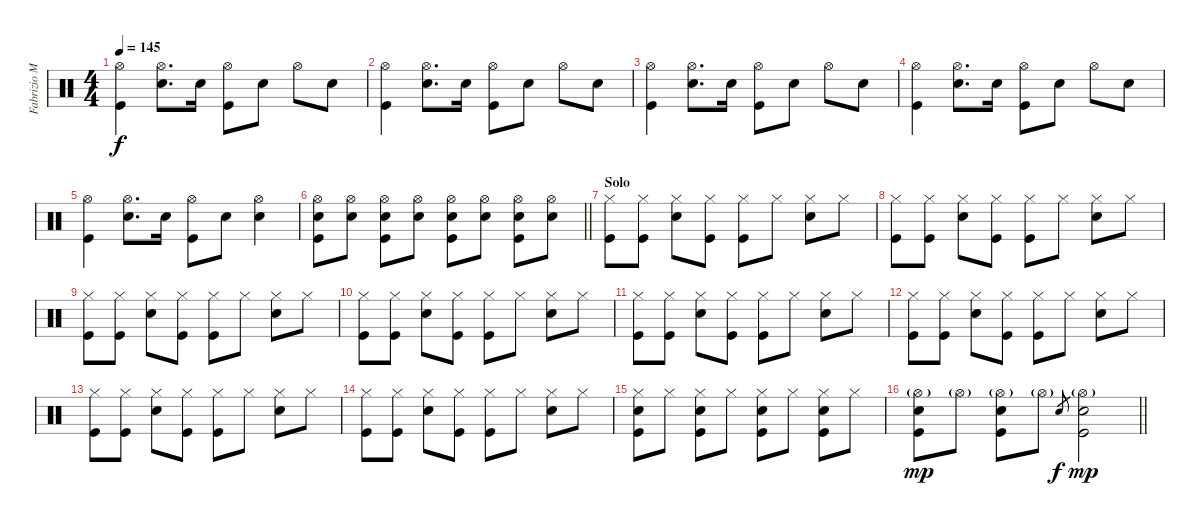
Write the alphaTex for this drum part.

\track ("Fabrizio Moretti" "Fabrizio M") {instrument percussion}
\staff {score}
\articulation defaults
\ts (4 4)
\tempo 145
\clef neutral
\ks c
("Hi-Hat (open)" "Kick (hit)").4{dy f} ("Hi-Hat (open)" "Snare (hit) 2").8{d} "Snare (hit) 2".16 ("Hi-Hat (open)" "Kick (hit)").8 "Snare (hit) 2".8 "Hi-Hat (open)".8 "Snare (hit) 2".8 |
("Hi-Hat (open)" "Kick (hit)").4 ("Hi-Hat (open)" "Snare (hit) 2").8{d} "Snare (hit) 2".16 ("Hi-Hat (open)" "Kick (hit)").8 "Snare (hit) 2".8 "Hi-Hat (open)".8 "Snare (hit) 2".8 |
("Hi-Hat (open)" "Kick (hit)").4 ("Hi-Hat (open)" "Snare (hit) 2").8{d} "Snare (hit) 2".16 ("Hi-Hat (open)" "Kick (hit)").8 "Snare (hit) 2".8 "Hi-Hat (open)".8 "Snare (hit) 2".8 |
("Hi-Hat (open)" "Kick (hit)").4 ("Hi-Hat (open)" "Snare (hit) 2").8{d} "Snare (hit) 2".16 ("Hi-Hat (open)" "Kick (hit)").8 "Snare (hit) 2".8 "Hi-Hat (open)".8 "Snare (hit) 2".8 |
("Hi-Hat (open)" "Kick (hit)").4 ("Hi-Hat (open)" "Snare (hit) 2").8{d} "Snare (hit) 2".16 ("Hi-Hat (open)" "Kick (hit)").8 "Snare (hit) 2".8 ("Hi-Hat (open)" "Snare (hit) 2").4 |
\barLineRight lightlight
("Hi-Hat (open)" "Snare (hit) 2" "Kick (hit)").8 ("Hi-Hat (open)" "Snare (hit) 2").8 ("Hi-Hat (open)" "Snare (hit) 2" "Kick (hit)").8 ("Hi-Hat (open)" "Snare (hit) 2").8 ("Hi-Hat (open)" "Snare (hit) 2" "Kick (hit)").8 ("Hi-Hat (open)" "Snare (hit) 2").8 ("Hi-Hat (open)" "Snare (hit) 2" "Kick (hit)").8 ("Hi-Hat (open)" "Snare (hit) 2").8 |
\section ("" "Solo")
("Hi-Hat (closed)" "Kick (hit)").8 ("Hi-Hat (closed)" "Kick (hit)").8 ("Hi-Hat (closed)" "Snare (hit) 2").8 ("Hi-Hat (closed)" "Kick (hit)").8 ("Hi-Hat (closed)" "Kick (hit)").8 "Hi-Hat (closed)".8 ("Hi-Hat (closed)" "Snare (hit) 2").8 "Hi-Hat (closed)".8 |
("Hi-Hat (closed)" "Kick (hit)").8 ("Hi-Hat (closed)" "Kick (hit)").8 ("Hi-Hat (closed)" "Snare (hit) 2").8 ("Hi-Hat (closed)" "Kick (hit)").8 ("Hi-Hat (closed)" "Kick (hit)").8 "Hi-Hat (closed)".8 ("Hi-Hat (closed)" "Snare (hit) 2").8 "Hi-Hat (closed)".8 |
("Hi-Hat (closed)" "Kick (hit)").8 ("Hi-Hat (closed)" "Kick (hit)").8 ("Hi-Hat (closed)" "Snare (hit) 2").8 ("Hi-Hat (closed)" "Kick (hit)").8 ("Hi-Hat (closed)" "Kick (hit)").8 "Hi-Hat (closed)".8 ("Hi-Hat (closed)" "Snare (hit) 2").8 "Hi-Hat (closed)".8 |
("Hi-Hat (closed)" "Kick (hit)").8 ("Hi-Hat (closed)" "Kick (hit)").8 ("Hi-Hat (closed)" "Snare (hit) 2").8 ("Hi-Hat (closed)" "Kick (hit)").8 ("Hi-Hat (closed)" "Kick (hit)").8 "Hi-Hat (closed)".8 ("Hi-Hat (closed)" "Snare (hit) 2").8 "Hi-Hat (closed)".8 |
("Hi-Hat (closed)" "Kick (hit)").8 ("Hi-Hat (closed)" "Kick (hit)").8 ("Hi-Hat (closed)" "Snare (hit) 2").8 ("Hi-Hat (closed)" "Kick (hit)").8 ("Hi-Hat (closed)" "Kick (hit)").8 "Hi-Hat (closed)".8 ("Hi-Hat (closed)" "Snare (hit) 2").8 "Hi-Hat (closed)".8 |
("Hi-Hat (closed)" "Kick (hit)").8 ("Hi-Hat (closed)" "Kick (hit)").8 ("Hi-Hat (closed)" "Snare (hit) 2").8 ("Hi-Hat (closed)" "Kick (hit)").8 ("Hi-Hat (closed)" "Kick (hit)").8 "Hi-Hat (closed)".8 ("Hi-Hat (closed)" "Snare (hit) 2").8 "Hi-Hat (closed)".8 |
("Hi-Hat (closed)" "Kick (hit)").8 ("Hi-Hat (closed)" "Kick (hit)").8 ("Hi-Hat (closed)" "Snare (hit) 2").8 ("Hi-Hat (closed)" "Kick (hit)").8 ("Hi-Hat (closed)" "Kick (hit)").8 "Hi-Hat (closed)".8 ("Hi-Hat (closed)" "Snare (hit) 2").8 "Hi-Hat (closed)".8 |
("Hi-Hat (closed)" "Kick (hit)").8 ("Hi-Hat (closed)" "Kick (hit)").8 ("Hi-Hat (closed)" "Snare (hit) 2").8 ("Hi-Hat (closed)" "Kick (hit)").8 ("Hi-Hat (closed)" "Kick (hit)").8 "Hi-Hat (closed)".8 ("Hi-Hat (closed)" "Snare (hit) 2").8 "Hi-Hat (closed)".8 |
("Hi-Hat (closed)" "Snare (hit) 2" "Kick (hit)").8 "Hi-Hat (closed)".8 ("Hi-Hat (closed)" "Snare (hit) 2" "Kick (hit)").8 "Hi-Hat (closed)".8 ("Hi-Hat (closed)" "Snare (hit) 2" "Kick (hit)").8 "Hi-Hat (closed)".8 ("Hi-Hat (closed)" "Snare (hit) 2" "Kick (hit)").8 "Hi-Hat (closed)".8 |
\barLineRight lightlight
("Hi-Hat (open)"{g} "Snare (hit) 2" "Kick (hit)").8{dy mp} "Hi-Hat (open)"{g}.8 ("Hi-Hat (open)"{g} "Snare (hit) 2" "Kick (hit)").8 "Hi-Hat (open)"{g}.8 "Snare (hit) 2".8{gr dy f} ("Hi-Hat (open)"{g} "Snare (hit) 2" "Kick (hit)").2{dy mp}
